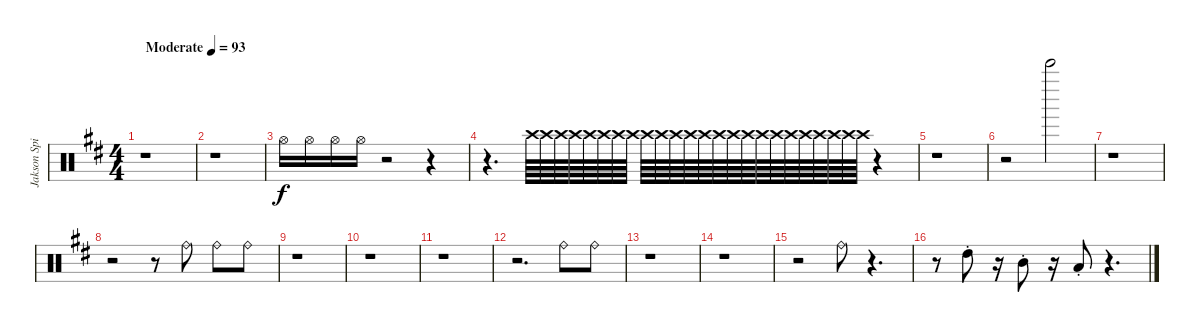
\track ("Jakson Spires Drums" "Jakson Spi") {instrument percussion}
\staff {score}
\articulation defaults
\ts (4 4)
\tempo (93 "Moderate")
\clef neutral
\ks bminor
r.1{dy f} |
r.1 |
"Hi-Hat (open)".16{volume 9} "Hi-Hat (open)".16 "Hi-Hat (open)".16 "Hi-Hat (open)".16 r.2 r.4 |
r.4{d} "Crash high (hit)".64{volume 13} "Crash high (hit)".64 "Crash high (hit)".64 "Crash high (hit)".64 "Crash high (hit)".64 "Crash high (hit)".64 "Crash high (hit)".64 "Crash high (hit)".64 "Crash high (hit)".64 "Crash high (hit)".64 "Crash high (hit)".64 "Crash high (hit)".64 "Crash high (hit)".64 "Crash high (hit)".64 "Crash high (hit)".64 "Crash high (hit)".64 "Crash high (hit)".64 "Crash high (hit)".64 "Crash high (hit)".64 "Crash high (hit)".64 "Crash high (hit)".64 "Crash high (hit)".64 "Crash high (hit)".64 "Crash high (hit)".64 r.4 |
r.1 |
r.2 "Bell Tree (hit)".2{volume 13} |
r.1 |
r.2 r.8 "Ride (bell)".8{volume 10} "Ride (bell)".8 "Ride (bell)".8 |
r.1 |
r.1 |
r.1 |
r.2{d} "Ride (bell)".8 "Ride (bell)".8 |
r.1 |
r.1 |
r.2 "Ride (bell)".8 r.4{d} |
r.8 "High Tom (hit)"{st}.8{volume 12} r.16 "Mid Tom (hit)"{st}.8 r.16 "Low Tom (hit)"{st}.8 r.4{d}
